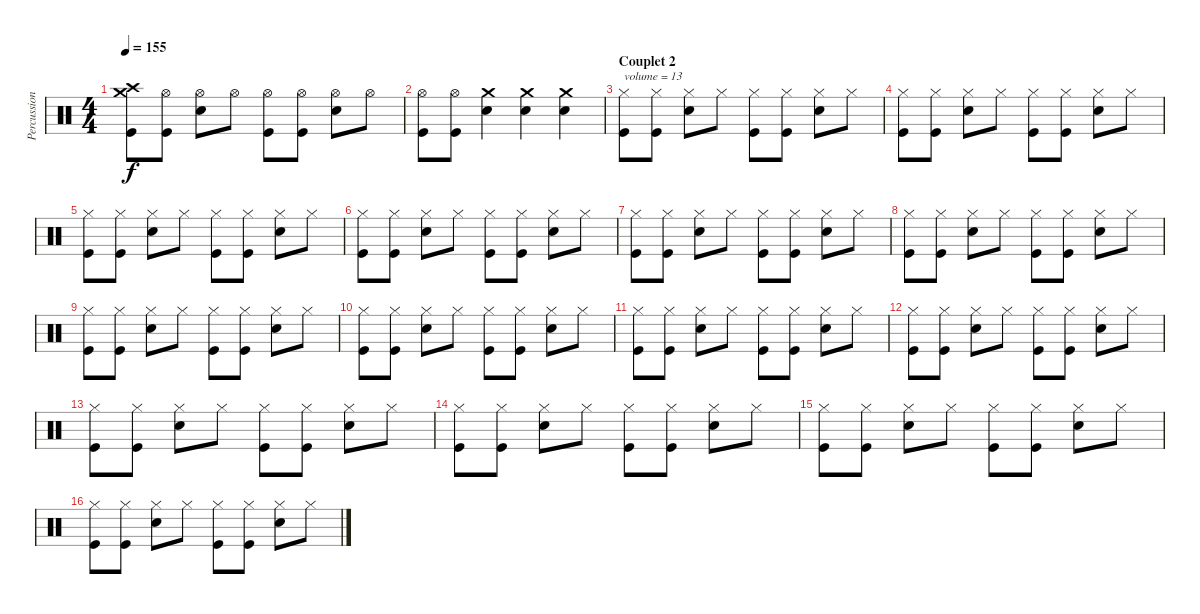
\track ("Percussions" "Percussion") {instrument percussion}
\staff {score}
\articulation defaults
\ts (4 4)
\tempo 155
\clef neutral
\ks c
("Crash high (hit)" "Crash medium (hit)" "Kick (hit)").8{dy f} ("Hi-Hat (open)" "Kick (hit)").8 ("Hi-Hat (open)" "Snare (hit) 2").8 "Hi-Hat (open)".8 ("Hi-Hat (open)" "Kick (hit)").8 ("Hi-Hat (open)" "Kick (hit)").8 ("Hi-Hat (open)" "Snare (hit) 2").8 "Hi-Hat (open)".8 |
("Hi-Hat (open)" "Kick (hit)").8 ("Hi-Hat (open)" "Kick (hit)").8 ("Crash medium (hit)" "Snare (hit) 2").4 ("Crash medium (hit)" "Snare (hit) 2").4 ("Crash medium (hit)" "Snare (hit) 2").4 |
\section ("" "Couplet 2")
("Hi-Hat (closed)" "Kick (hit)").8{txt "volume = 13" volume 13} ("Hi-Hat (closed)" "Kick (hit)").8 ("Hi-Hat (closed)" "Snare (hit) 2").8 "Hi-Hat (closed)".8 ("Hi-Hat (closed)" "Kick (hit)").8 ("Hi-Hat (closed)" "Kick (hit)").8 ("Hi-Hat (closed)" "Snare (hit) 2").8 "Hi-Hat (closed)".8 |
("Hi-Hat (closed)" "Kick (hit)").8 ("Hi-Hat (closed)" "Kick (hit)").8 ("Hi-Hat (closed)" "Snare (hit) 2").8 "Hi-Hat (closed)".8 ("Hi-Hat (closed)" "Kick (hit)").8 ("Hi-Hat (closed)" "Kick (hit)").8 ("Hi-Hat (closed)" "Snare (hit) 2").8 "Hi-Hat (closed)".8 |
("Hi-Hat (closed)" "Kick (hit)").8 ("Hi-Hat (closed)" "Kick (hit)").8 ("Hi-Hat (closed)" "Snare (hit) 2").8 "Hi-Hat (closed)".8 ("Hi-Hat (closed)" "Kick (hit)").8 ("Hi-Hat (closed)" "Kick (hit)").8 ("Hi-Hat (closed)" "Snare (hit) 2").8 "Hi-Hat (closed)".8 |
("Hi-Hat (closed)" "Kick (hit)").8 ("Hi-Hat (closed)" "Kick (hit)").8 ("Hi-Hat (closed)" "Snare (hit) 2").8 "Hi-Hat (closed)".8 ("Hi-Hat (closed)" "Kick (hit)").8 ("Hi-Hat (closed)" "Kick (hit)").8 ("Hi-Hat (closed)" "Snare (hit) 2").8 "Hi-Hat (closed)".8 |
("Hi-Hat (closed)" "Kick (hit)").8 ("Hi-Hat (closed)" "Kick (hit)").8 ("Hi-Hat (closed)" "Snare (hit) 2").8 "Hi-Hat (closed)".8 ("Hi-Hat (closed)" "Kick (hit)").8 ("Hi-Hat (closed)" "Kick (hit)").8 ("Hi-Hat (closed)" "Snare (hit) 2").8 "Hi-Hat (closed)".8 |
("Hi-Hat (closed)" "Kick (hit)").8 ("Hi-Hat (closed)" "Kick (hit)").8 ("Hi-Hat (closed)" "Snare (hit) 2").8 "Hi-Hat (closed)".8 ("Hi-Hat (closed)" "Kick (hit)").8 ("Hi-Hat (closed)" "Kick (hit)").8 ("Hi-Hat (closed)" "Snare (hit) 2").8 "Hi-Hat (closed)".8 |
("Hi-Hat (closed)" "Kick (hit)").8 ("Hi-Hat (closed)" "Kick (hit)").8 ("Hi-Hat (closed)" "Snare (hit) 2").8 "Hi-Hat (closed)".8 ("Hi-Hat (closed)" "Kick (hit)").8 ("Hi-Hat (closed)" "Kick (hit)").8 ("Hi-Hat (closed)" "Snare (hit) 2").8 "Hi-Hat (closed)".8 |
("Hi-Hat (closed)" "Kick (hit)").8 ("Hi-Hat (closed)" "Kick (hit)").8 ("Hi-Hat (closed)" "Snare (hit) 2").8 "Hi-Hat (closed)".8 ("Hi-Hat (closed)" "Kick (hit)").8 ("Hi-Hat (closed)" "Kick (hit)").8 ("Hi-Hat (closed)" "Snare (hit) 2").8 "Hi-Hat (closed)".8 |
("Hi-Hat (closed)" "Kick (hit)").8 ("Hi-Hat (closed)" "Kick (hit)").8 ("Hi-Hat (closed)" "Snare (hit) 2").8 "Hi-Hat (closed)".8 ("Hi-Hat (closed)" "Kick (hit)").8 ("Hi-Hat (closed)" "Kick (hit)").8 ("Hi-Hat (closed)" "Snare (hit) 2").8 "Hi-Hat (closed)".8 |
("Hi-Hat (closed)" "Kick (hit)").8 ("Hi-Hat (closed)" "Kick (hit)").8 ("Hi-Hat (closed)" "Snare (hit) 2").8 "Hi-Hat (closed)".8 ("Hi-Hat (closed)" "Kick (hit)").8 ("Hi-Hat (closed)" "Kick (hit)").8 ("Hi-Hat (closed)" "Snare (hit) 2").8 "Hi-Hat (closed)".8 |
("Hi-Hat (closed)" "Kick (hit)").8 ("Hi-Hat (closed)" "Kick (hit)").8 ("Hi-Hat (closed)" "Snare (hit) 2").8 "Hi-Hat (closed)".8 ("Hi-Hat (closed)" "Kick (hit)").8 ("Hi-Hat (closed)" "Kick (hit)").8 ("Hi-Hat (closed)" "Snare (hit) 2").8 "Hi-Hat (closed)".8 |
("Hi-Hat (closed)" "Kick (hit)").8 ("Hi-Hat (closed)" "Kick (hit)").8 ("Hi-Hat (closed)" "Snare (hit) 2").8 "Hi-Hat (closed)".8 ("Hi-Hat (closed)" "Kick (hit)").8 ("Hi-Hat (closed)" "Kick (hit)").8 ("Hi-Hat (closed)" "Snare (hit) 2").8 "Hi-Hat (closed)".8 |
("Hi-Hat (closed)" "Kick (hit)").8 ("Hi-Hat (closed)" "Kick (hit)").8 ("Hi-Hat (closed)" "Snare (hit) 2").8 "Hi-Hat (closed)".8 ("Hi-Hat (closed)" "Kick (hit)").8 ("Hi-Hat (closed)" "Kick (hit)").8 ("Hi-Hat (closed)" "Snare (hit) 2").8 "Hi-Hat (closed)".8 |
("Hi-Hat (closed)" "Kick (hit)").8 ("Hi-Hat (closed)" "Kick (hit)").8 ("Hi-Hat (closed)" "Snare (hit) 2").8 "Hi-Hat (closed)".8 ("Hi-Hat (closed)" "Kick (hit)").8 ("Hi-Hat (closed)" "Kick (hit)").8 ("Hi-Hat (closed)" "Snare (hit) 2").8 "Hi-Hat (closed)".8
